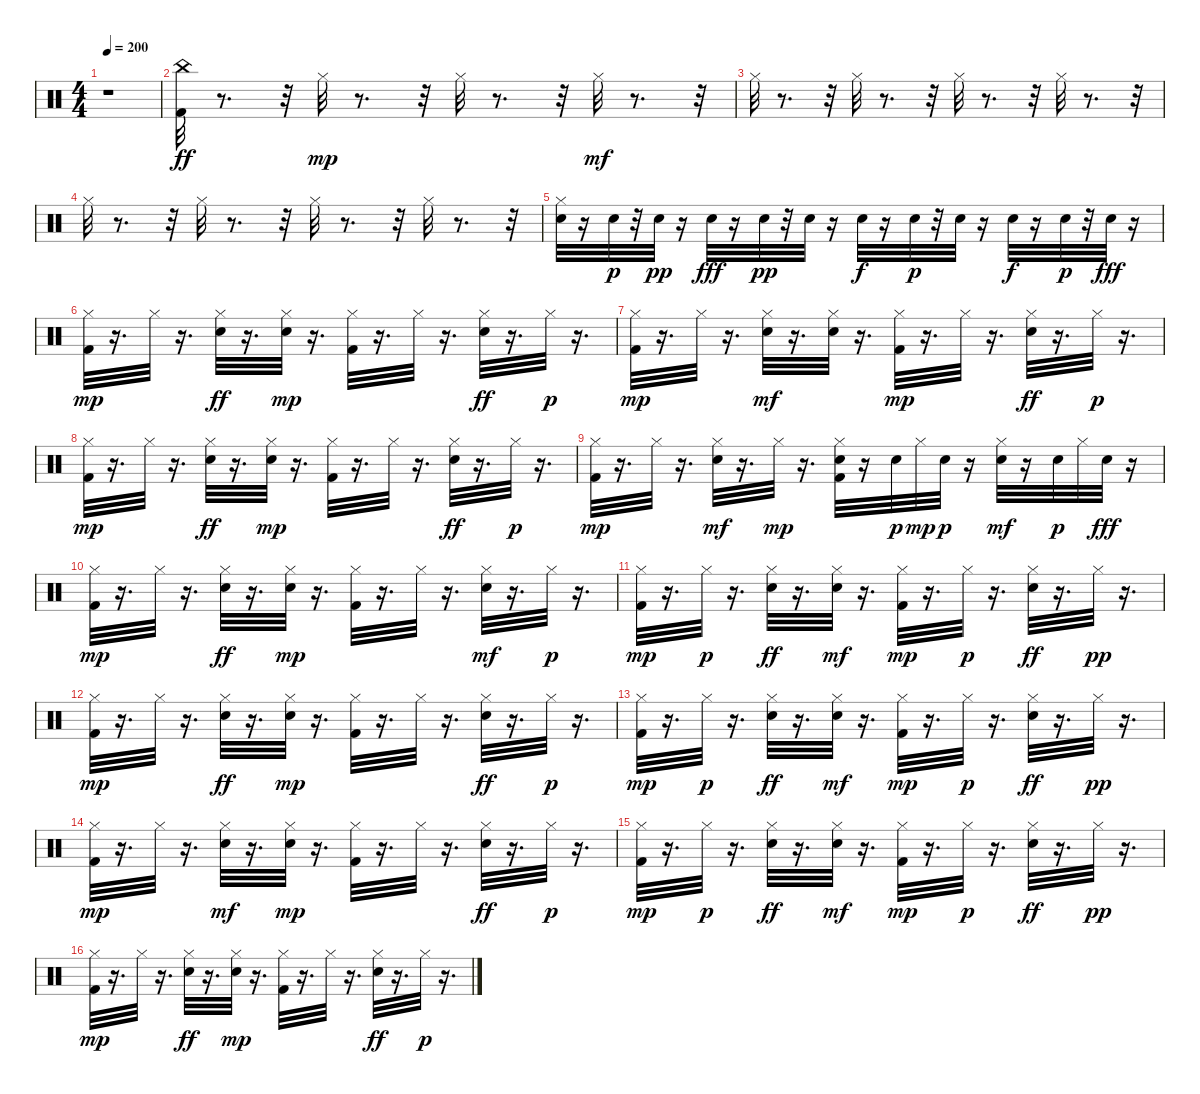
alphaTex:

\track "" {instrument percussion}
\staff {score}
\articulation defaults
\ts (4 4)
\tempo 200
\clef neutral
\ks c
r.1{dy ff} |
("Kick (hit) 2" "China (hit)").32 r.8{d} r.32 "Hi-Hat (closed)".32{dy mp} r.8{d} r.32 "Hi-Hat (closed)".32 r.8{d} r.32 "Hi-Hat (closed)".32{dy mf} r.8{d} r.32 |
"Hi-Hat (closed)".32 r.8{d} r.32 "Hi-Hat (closed)".32 r.8{d} r.32 "Hi-Hat (closed)".32 r.8{d} r.32 "Hi-Hat (closed)".32 r.8{d} r.32 |
"Hi-Hat (closed)".32 r.8{d} r.32 "Hi-Hat (closed)".32 r.8{d} r.32 "Hi-Hat (closed)".32 r.8{d} r.32 "Hi-Hat (closed)".32 r.8{d} r.32 |
("Electric Snare (hit)" "Hi-Hat (closed)").32 r.16 "Electric Snare (hit)".32{dy p} r.32 "Electric Snare (hit)".32{dy pp} r.16 "Electric Snare (hit)".32{dy fff} r.16 "Electric Snare (hit)".32{dy pp} r.32 "Electric Snare (hit)".32 r.16 "Electric Snare (hit)".32{dy f} r.16 "Electric Snare (hit)".32{dy p} r.32 "Electric Snare (hit)".32 r.16 "Electric Snare (hit)".32{dy f} r.16 "Electric Snare (hit)".32{dy p} r.32 "Electric Snare (hit)".32{dy fff} r.16 |
("Kick (hit) 2" "Hi-Hat (closed)").32{dy mp} r.16{d} "Hi-Hat (closed)".32 r.16{d} ("Hi-Hat (closed)" "Electric Snare (hit)").32{dy ff} r.16{d} ("Hi-Hat (closed)" "Electric Snare (hit)").32{dy mp} r.16{d} ("Kick (hit) 2" "Hi-Hat (closed)").32 r.16{d} "Hi-Hat (closed)".32 r.16{d} ("Hi-Hat (closed)" "Electric Snare (hit)").32{dy ff} r.16{d} "Hi-Hat (closed)".32{dy p} r.16{d} |
("Kick (hit) 2" "Hi-Hat (closed)").32{dy mp} r.16{d} "Hi-Hat (closed)".32 r.16{d} ("Electric Snare (hit)" "Hi-Hat (closed)").32{dy mf} r.16{d} ("Hi-Hat (closed)" "Electric Snare (hit)").32 r.16{d} ("Kick (hit) 2" "Hi-Hat (closed)").32{dy mp} r.16{d} "Hi-Hat (closed)".32 r.16{d} ("Hi-Hat (closed)" "Electric Snare (hit)").32{dy ff} r.16{d} "Hi-Hat (closed)".32{dy p} r.16{d} |
("Kick (hit) 2" "Hi-Hat (closed)").32{dy mp} r.16{d} "Hi-Hat (closed)".32 r.16{d} ("Hi-Hat (closed)" "Electric Snare (hit)").32{dy ff} r.16{d} ("Hi-Hat (closed)" "Electric Snare (hit)").32{dy mp} r.16{d} ("Kick (hit) 2" "Hi-Hat (closed)").32 r.16{d} "Hi-Hat (closed)".32 r.16{d} ("Hi-Hat (closed)" "Electric Snare (hit)").32{dy ff} r.16{d} "Hi-Hat (closed)".32{dy p} r.16{d} |
("Kick (hit) 2" "Hi-Hat (closed)").32{dy mp} r.16{d} "Hi-Hat (closed)".32 r.16{d} ("Electric Snare (hit)" "Hi-Hat (closed)").32{dy mf} r.16{d} "Hi-Hat (closed)".32{dy mp} r.16{d} ("Electric Snare (hit)" "Kick (hit) 2" "Hi-Hat (closed)").32 r.16 "Electric Snare (hit)".32{dy p} "Hi-Hat (closed)".32{dy mp} "Electric Snare (hit)".32{dy p} r.16 ("Electric Snare (hit)" "Hi-Hat (closed)").32{dy mf} r.16 "Electric Snare (hit)".32{dy p} "Hi-Hat (closed)".32 "Electric Snare (hit)".32{dy fff} r.16 |
("Kick (hit) 2" "Hi-Hat (closed)").32{dy mp} r.16{d} "Hi-Hat (closed)".32 r.16{d} ("Hi-Hat (closed)" "Electric Snare (hit)").32{dy ff} r.16{d} ("Hi-Hat (closed)" "Electric Snare (hit)").32{dy mp} r.16{d} ("Kick (hit) 2" "Hi-Hat (closed)").32 r.16{d} "Hi-Hat (closed)".32 r.16{d} ("Electric Snare (hit)" "Hi-Hat (closed)").32{dy mf} r.16{d} "Hi-Hat (closed)".32{dy p} r.16{d} |
("Kick (hit) 2" "Hi-Hat (closed)").32{dy mp} r.16{d} "Hi-Hat (closed)".32{dy p} r.16{d} ("Hi-Hat (closed)" "Electric Snare (hit)").32{dy ff} r.16{d} ("Hi-Hat (closed)" "Electric Snare (hit)").32{dy mf} r.16{d} ("Kick (hit) 2" "Hi-Hat (closed)").32{dy mp} r.16{d} "Hi-Hat (closed)".32{dy p} r.16{d} ("Hi-Hat (closed)" "Electric Snare (hit)").32{dy ff} r.16{d} "Hi-Hat (closed)".32{dy pp} r.16{d} |
("Kick (hit) 2" "Hi-Hat (closed)").32{dy mp} r.16{d} "Hi-Hat (closed)".32 r.16{d} ("Hi-Hat (closed)" "Electric Snare (hit)").32{dy ff} r.16{d} ("Electric Snare (hit)" "Hi-Hat (closed)").32{dy mp} r.16{d} ("Kick (hit) 2" "Hi-Hat (closed)").32 r.16{d} "Hi-Hat (closed)".32 r.16{d} ("Hi-Hat (closed)" "Electric Snare (hit)").32{dy ff} r.16{d} "Hi-Hat (closed)".32{dy p} r.16{d} |
("Kick (hit) 2" "Hi-Hat (closed)").32{dy mp} r.16{d} "Hi-Hat (closed)".32{dy p} r.16{d} ("Hi-Hat (closed)" "Electric Snare (hit)").32{dy ff} r.16{d} ("Hi-Hat (closed)" "Electric Snare (hit)").32{dy mf} r.16{d} ("Kick (hit) 2" "Hi-Hat (closed)").32{dy mp} r.16{d} "Hi-Hat (closed)".32{dy p} r.16{d} ("Hi-Hat (closed)" "Electric Snare (hit)").32{dy ff} r.16{d} "Hi-Hat (closed)".32{dy pp} r.16{d} |
("Kick (hit) 2" "Hi-Hat (closed)").32{dy mp} r.16{d} "Hi-Hat (closed)".32 r.16{d} ("Electric Snare (hit)" "Hi-Hat (closed)").32{dy mf} r.16{d} ("Hi-Hat (closed)" "Electric Snare (hit)").32{dy mp} r.16{d} ("Kick (hit) 2" "Hi-Hat (closed)").32 r.16{d} "Hi-Hat (closed)".32 r.16{d} ("Hi-Hat (closed)" "Electric Snare (hit)").32{dy ff} r.16{d} "Hi-Hat (closed)".32{dy p} r.16{d} |
("Kick (hit) 2" "Hi-Hat (closed)").32{dy mp} r.16{d} "Hi-Hat (closed)".32{dy p} r.16{d} ("Hi-Hat (closed)" "Electric Snare (hit)").32{dy ff} r.16{d} ("Hi-Hat (closed)" "Electric Snare (hit)").32{dy mf} r.16{d} ("Kick (hit) 2" "Hi-Hat (closed)").32{dy mp} r.16{d} "Hi-Hat (closed)".32{dy p} r.16{d} ("Hi-Hat (closed)" "Electric Snare (hit)").32{dy ff} r.16{d} "Hi-Hat (closed)".32{dy pp} r.16{d} |
("Kick (hit) 2" "Hi-Hat (closed)").32{dy mp} r.16{d} "Hi-Hat (closed)".32 r.16{d} ("Hi-Hat (closed)" "Electric Snare (hit)").32{dy ff} r.16{d} ("Hi-Hat (closed)" "Electric Snare (hit)").32{dy mp} r.16{d} ("Kick (hit) 2" "Hi-Hat (closed)").32 r.16{d} "Hi-Hat (closed)".32 r.16{d} ("Hi-Hat (closed)" "Electric Snare (hit)").32{dy ff} r.16{d} "Hi-Hat (closed)".32{dy p} r.16{d}
